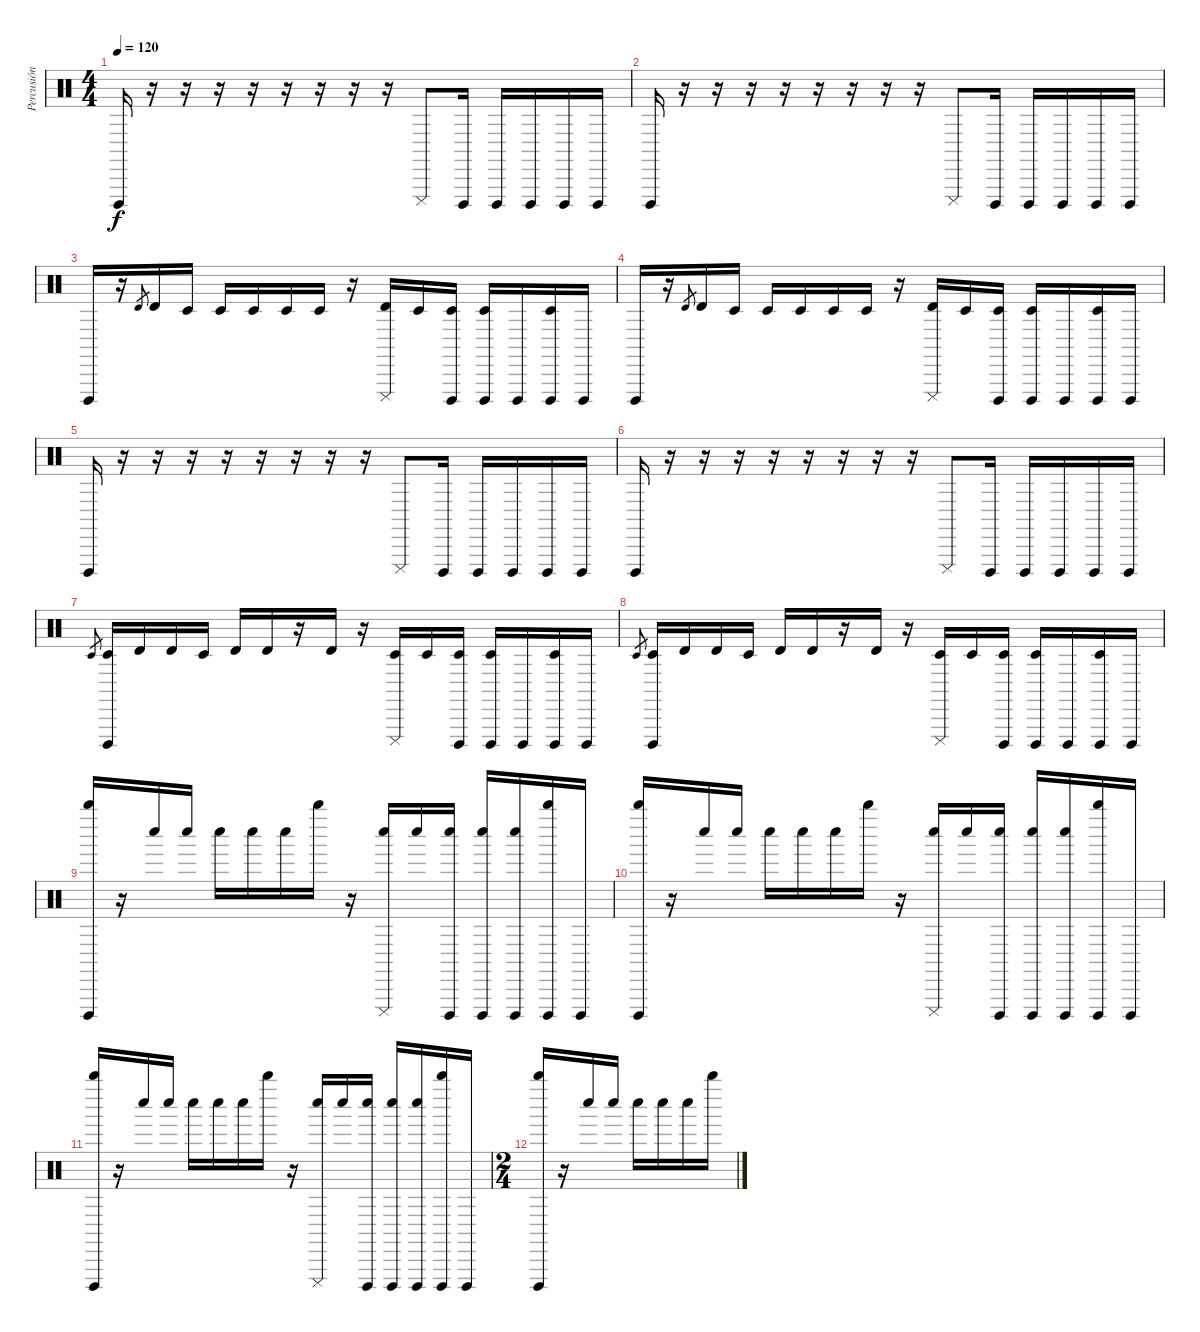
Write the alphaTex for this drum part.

\track ("Percusión" "Percusión") {instrument percussion}
\staff {score}
\articulation defaults
\ts (4 4)
\tempo 120
\clef neutral
\ks c "Cuica (open)".16{dy f}
r.16 r.16 r.16 r.16 r.16 r.16 r.16 r.16 "Cuica (mute)".8 "Cuica (open)".16 "Cuica (open)".16 "Cuica (open)".16 "Cuica (open)".16 "Cuica (open)".16 |
"Cuica (open)".16 r.16 r.16 r.16 r.16 r.16 r.16 r.16 r.16 "Cuica (mute)".8 "Cuica (open)".16 "Cuica (open)".16 "Cuica (open)".16 "Cuica (open)".16 "Cuica (open)".16 |
"Cuica (open)".16 r.16 "Timbale high (hit)".8{gr} "Timbale high (hit)".16 "Timbale low (hit)".16 "Timbale low (hit)".16 "Timbale low (hit)".16 "Timbale low (hit)".16 "Timbale low (hit)".16 r.16 ("Cuica (mute)" "Timbale high (hit)").16 "Timbale low (hit)".16 ("Cuica (open)" "Timbale low (hit)").16 ("Cuica (open)" "Timbale low (hit)").16 "Cuica (open)".16 ("Cuica (open)" "Timbale low (hit)").16 "Cuica (open)".16 |
"Cuica (open)".16 r.16 "Timbale high (hit)".8{gr} "Timbale high (hit)".16 "Timbale low (hit)".16 "Timbale low (hit)".16 "Timbale low (hit)".16 "Timbale low (hit)".16 "Timbale low (hit)".16 r.16 ("Cuica (mute)" "Timbale high (hit)").16 "Timbale low (hit)".16 ("Cuica (open)" "Timbale low (hit)").16 ("Cuica (open)" "Timbale low (hit)").16 "Cuica (open)".16 ("Cuica (open)" "Timbale low (hit)").16 "Cuica (open)".16 |
"Cuica (open)".16 r.16 r.16 r.16 r.16 r.16 r.16 r.16 r.16 "Cuica (mute)".8 "Cuica (open)".16 "Cuica (open)".16 "Cuica (open)".16 "Cuica (open)".16 "Cuica (open)".16 |
"Cuica (open)".16 r.16 r.16 r.16 r.16 r.16 r.16 r.16 r.16 "Cuica (mute)".8 "Cuica (open)".16 "Cuica (open)".16 "Cuica (open)".16 "Cuica (open)".16 "Cuica (open)".16 |
"Timbale low (hit)".8{gr} ("Cuica (open)" "Timbale low (hit)").16 "Timbale high (hit)".16 "Timbale high (hit)".16 "Timbale low (hit)".16 "Timbale high (hit)".16 "Timbale high (hit)".16 r.16 "Timbale high (hit)".16 r.16 ("Cuica (mute)" "Timbale low (hit)").16 "Timbale low (hit)".16 ("Cuica (open)" "Timbale low (hit)").16 ("Cuica (open)" "Timbale low (hit)").16 "Cuica (open)".16 ("Cuica (open)" "Timbale low (hit)").16 "Cuica (open)".16 |
"Timbale low (hit)".8{gr} ("Cuica (open)" "Timbale low (hit)").16 "Timbale high (hit)".16 "Timbale high (hit)".16 "Timbale low (hit)".16 "Timbale high (hit)".16 "Timbale high (hit)".16 r.16 "Timbale high (hit)".16 r.16 ("Cuica (mute)" "Timbale low (hit)").16 "Timbale low (hit)".16 ("Cuica (open)" "Timbale low (hit)").16 ("Cuica (open)" "Timbale low (hit)").16 "Cuica (open)".16 ("Cuica (open)" "Timbale low (hit)").16 "Cuica (open)".16 |
("Cuica (open)" "Whistle high (hit)").16 r.16 "Whistle low (hit)".16 "Whistle low (hit)".16 "Whistle low (hit)".16 "Whistle low (hit)".16 "Whistle low (hit)".16 "Whistle high (hit)".16 r.16 ("Cuica (mute)" "Whistle low (hit)").16 "Whistle low (hit)".16 ("Cuica (open)" "Whistle low (hit)").16 ("Cuica (open)" "Whistle low (hit)").16 ("Cuica (open)" "Whistle low (hit)").16 ("Cuica (open)" "Whistle high (hit)").16 "Cuica (open)".16 |
("Cuica (open)" "Whistle high (hit)").16 r.16 "Whistle low (hit)".16 "Whistle low (hit)".16 "Whistle low (hit)".16 "Whistle low (hit)".16 "Whistle low (hit)".16 "Whistle high (hit)".16 r.16 ("Cuica (mute)" "Whistle low (hit)").16 "Whistle low (hit)".16 ("Cuica (open)" "Whistle low (hit)").16 ("Cuica (open)" "Whistle low (hit)").16 ("Cuica (open)" "Whistle low (hit)").16 ("Cuica (open)" "Whistle high (hit)").16 "Cuica (open)".16 |
("Cuica (open)" "Whistle high (hit)").16 r.16 "Whistle low (hit)".16 "Whistle low (hit)".16 "Whistle low (hit)".16 "Whistle low (hit)".16 "Whistle low (hit)".16 "Whistle high (hit)".16 r.16 ("Cuica (mute)" "Whistle low (hit)").16 "Whistle low (hit)".16 ("Cuica (open)" "Whistle low (hit)").16 ("Cuica (open)" "Whistle low (hit)").16 ("Cuica (open)" "Whistle low (hit)").16 ("Cuica (open)" "Whistle high (hit)").16 "Cuica (open)".16 |
\ts (2 4)
("Cuica (open)" "Whistle high (hit)").16 r.16 "Whistle low (hit)".16 "Whistle low (hit)".16 "Whistle low (hit)".16 "Whistle low (hit)".16 "Whistle low (hit)".16 "Whistle high (hit)".16
